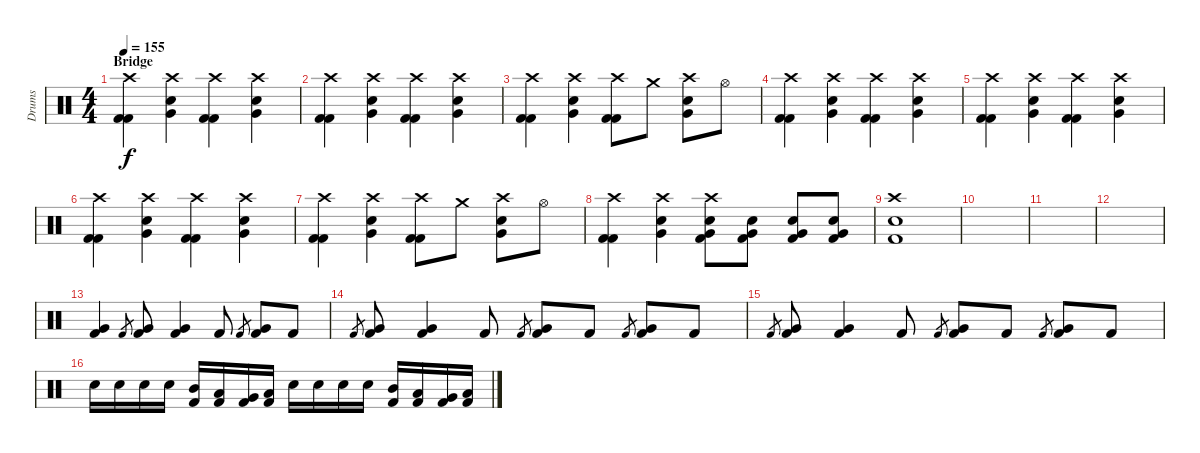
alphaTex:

\track ("Drums" "Drums") {instrument percussion}
\staff {score}
\articulation defaults
\ts (4 4)
\section ("" "Bridge")
\tempo 155
\clef neutral
\ks c
("Crash high (hit)" "Kick (hit) 2" "Kick (hit) 2").4{dy f} ("Crash high (hit)" "Very Low Tom (hit)" "Electric Snare (hit)").4 ("Crash high (hit)" "Kick (hit) 2" "Kick (hit) 2").4 ("Crash high (hit)" "Very Low Tom (hit)" "Electric Snare (hit)").4 |
("Crash high (hit)" "Kick (hit) 2" "Kick (hit) 2").4 ("Crash high (hit)" "Very Low Tom (hit)" "Electric Snare (hit)").4 ("Crash high (hit)" "Kick (hit) 2" "Kick (hit) 2").4 ("Crash high (hit)" "Very Low Tom (hit)" "Electric Snare (hit)").4 |
("Crash high (hit)" "Kick (hit) 2" "Kick (hit) 2").4 ("Crash high (hit)" "Very Low Tom (hit)" "Electric Snare (hit)").4 ("Crash high (hit)" "Kick (hit) 2" "Kick (hit) 2").8 "Crash medium (hit)".8 ("Crash high (hit)" "Very Low Tom (hit)" "Electric Snare (hit)").8 "Hi-Hat (open)".8 |
("Crash high (hit)" "Kick (hit) 2" "Kick (hit) 2").4 ("Crash high (hit)" "Very Low Tom (hit)" "Electric Snare (hit)").4 ("Crash high (hit)" "Kick (hit) 2" "Kick (hit) 2").4 ("Crash high (hit)" "Very Low Tom (hit)" "Electric Snare (hit)").4 |
("Crash high (hit)" "Kick (hit) 2" "Kick (hit) 2").4 ("Crash high (hit)" "Very Low Tom (hit)" "Electric Snare (hit)").4 ("Crash high (hit)" "Kick (hit) 2" "Kick (hit) 2").4 ("Crash high (hit)" "Very Low Tom (hit)" "Electric Snare (hit)").4 |
("Crash high (hit)" "Kick (hit) 2" "Kick (hit) 2").4 ("Crash high (hit)" "Very Low Tom (hit)" "Electric Snare (hit)").4 ("Crash high (hit)" "Kick (hit) 2" "Kick (hit) 2").4 ("Crash high (hit)" "Very Low Tom (hit)" "Electric Snare (hit)").4 |
("Crash high (hit)" "Kick (hit) 2" "Kick (hit) 2").4 ("Crash high (hit)" "Very Low Tom (hit)" "Electric Snare (hit)").4 ("Crash high (hit)" "Kick (hit) 2" "Kick (hit) 2").8 "Crash medium (hit)".8 ("Crash high (hit)" "Very Low Tom (hit)" "Electric Snare (hit)").8 "Hi-Hat (open)".8 |
("Crash high (hit)" "Kick (hit) 2" "Kick (hit) 2").4 ("Crash high (hit)" "Very Low Tom (hit)" "Electric Snare (hit)").4 ("Crash high (hit)" "Very Low Tom (hit)" "Electric Snare (hit)" "Kick (hit) 2").8 ("Very Low Tom (hit)" "Electric Snare (hit)" "Kick (hit) 2").8 ("Very Low Tom (hit)" "Electric Snare (hit)" "Kick (hit) 2").8 ("Very Low Tom (hit)" "Electric Snare (hit)" "Kick (hit) 2").8 |
("Crash high (hit)" "Electric Snare (hit)" "Kick (hit) 2").1 |
|
|
|
("Very Low Tom (hit)" "Kick (hit) 2").4 "Kick (hit) 2".8{gr} ("Very Low Tom (hit)" "Kick (hit) 2").8 ("Very Low Tom (hit)" "Kick (hit) 2").4 "Kick (hit) 2".8 "Kick (hit) 2".8{gr} ("Very Low Tom (hit)" "Kick (hit) 2").8 "Kick (hit) 2".8 |
"Kick (hit) 2".8{gr} ("Very Low Tom (hit)" "Kick (hit) 2").8 ("Very Low Tom (hit)" "Kick (hit) 2").4 "Kick (hit) 2".8 "Kick (hit) 2".8{gr} ("Very Low Tom (hit)" "Kick (hit) 2").8 "Kick (hit) 2".8 "Kick (hit) 2".8{gr} ("Very Low Tom (hit)" "Kick (hit) 2").8 "Kick (hit) 2".8 |
"Kick (hit) 2".8{gr} ("Very Low Tom (hit)" "Kick (hit) 2").8 ("Very Low Tom (hit)" "Kick (hit) 2").4 "Kick (hit) 2".8 "Kick (hit) 2".8{gr} ("Very Low Tom (hit)" "Kick (hit) 2").8 "Kick (hit) 2".8 "Kick (hit) 2".8{gr} ("Very Low Tom (hit)" "Kick (hit) 2").8 "Kick (hit) 2".8 |
"Electric Snare (hit)".16 "Electric Snare (hit)".16 "Electric Snare (hit)".16 "Electric Snare (hit)".16 ("Mid Tom (hit)" "Kick (hit) 2").16 ("Low Tom (hit)" "Kick (hit) 2").16 ("Very Low Tom (hit)" "Kick (hit) 2").16 ("Low Floor Tom (hit)" "Kick (hit) 2").16 "Electric Snare (hit)".16 "Electric Snare (hit)".16 "Electric Snare (hit)".16 "Electric Snare (hit)".16 ("Mid Tom (hit)" "Kick (hit) 2").16 ("Low Tom (hit)" "Kick (hit) 2").16 ("Very Low Tom (hit)" "Kick (hit) 2").16 ("Low Floor Tom (hit)" "Kick (hit) 2").16
